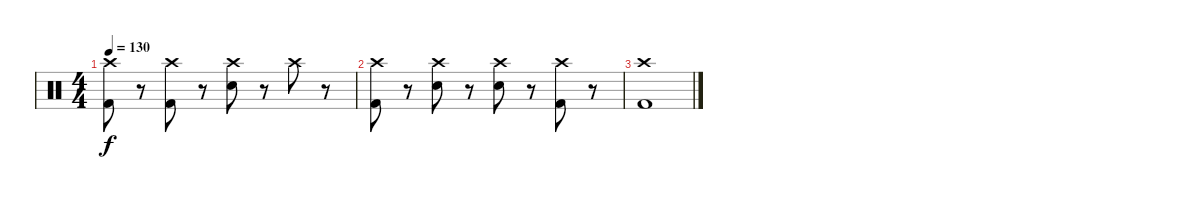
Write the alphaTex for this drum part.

\track "" {instrument percussion}
\staff {score}
\articulation defaults
\ts (4 4)
\tempo 130
\clef neutral
\ks c
("Crash high (hit)" "Kick (hit) 2").8{dy f} r.8 ("Crash high (hit)" "Kick (hit) 2").8 r.8 ("Crash high (hit)" "Electric Snare (hit)").8 r.8 "Crash high (hit)".8 r.8 |
("Crash high (hit)" "Kick (hit) 2").8 r.8 ("Crash high (hit)" "Electric Snare (hit)").8 r.8 ("Crash high (hit)" "Electric Snare (hit)").8 r.8 ("Crash high (hit)" "Kick (hit) 2").8 r.8 |
("Crash high (hit)" "Kick (hit) 2").1
